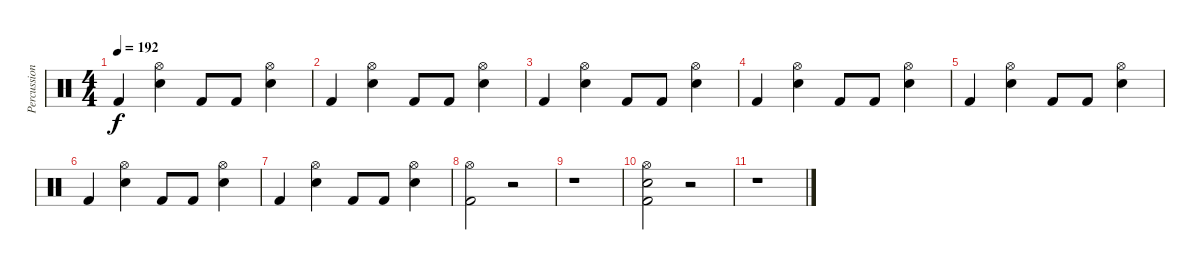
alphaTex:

\track ("Percussions" "Percussion") {instrument percussion}
\staff {score}
\articulation defaults
\ts (4 4)
\tempo 192
\clef neutral
\ks c "Kick (hit) 2".4{dy f}
("Electric Snare (hit)" "Hi-Hat (open)").4 "Kick (hit) 2".8 "Kick (hit) 2".8 ("Electric Snare (hit)" "Hi-Hat (open)").4 |
"Kick (hit) 2".4 ("Electric Snare (hit)" "Hi-Hat (open)").4 "Kick (hit) 2".8 "Kick (hit) 2".8 ("Electric Snare (hit)" "Hi-Hat (open)").4 |
"Kick (hit) 2".4 ("Electric Snare (hit)" "Hi-Hat (open)").4 "Kick (hit) 2".8 "Kick (hit) 2".8 ("Electric Snare (hit)" "Hi-Hat (open)").4 |
"Kick (hit) 2".4 ("Electric Snare (hit)" "Hi-Hat (open)").4 "Kick (hit) 2".8 "Kick (hit) 2".8 ("Electric Snare (hit)" "Hi-Hat (open)").4 |
"Kick (hit) 2".4 ("Electric Snare (hit)" "Hi-Hat (open)").4 "Kick (hit) 2".8 "Kick (hit) 2".8 ("Electric Snare (hit)" "Hi-Hat (open)").4 |
"Kick (hit) 2".4 ("Electric Snare (hit)" "Hi-Hat (open)").4 "Kick (hit) 2".8 "Kick (hit) 2".8 ("Electric Snare (hit)" "Hi-Hat (open)").4 |
"Kick (hit) 2".4 ("Electric Snare (hit)" "Hi-Hat (open)").4 "Kick (hit) 2".8 "Kick (hit) 2".8 ("Electric Snare (hit)" "Hi-Hat (open)").4 |
("Kick (hit) 2" "Hi-Hat (open)").2 r.2 |
r.1 |
("Kick (hit) 2" "Electric Snare (hit)" "Hi-Hat (open)").2 r.2 |
r.1
